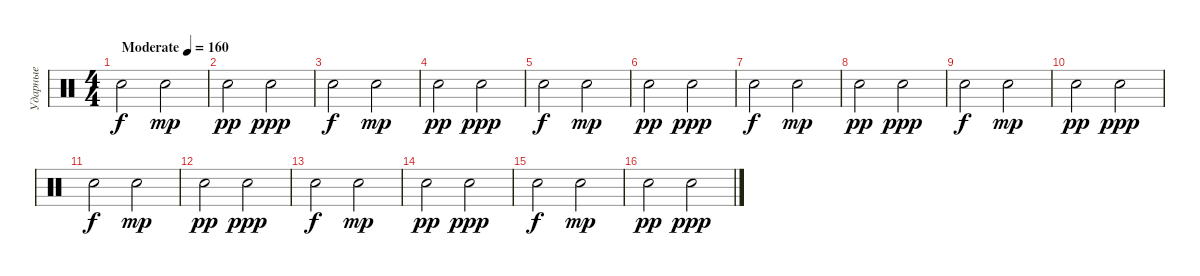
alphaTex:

\track ("Ударные" "Ударные") {instrument percussion}
\staff {score}
\articulation defaults
\ts (4 4)
\tempo (160 "Moderate")
\clef neutral
\ks c "Snare (hit) 2".2{dy f} "Snare (hit) 2".2{dy mp}
|
"Snare (hit) 2".2{dy pp} "Snare (hit) 2".2{dy ppp} |
"Snare (hit) 2".2{dy f} "Snare (hit) 2".2{dy mp} |
"Snare (hit) 2".2{dy pp} "Snare (hit) 2".2{dy ppp} |
"Snare (hit) 2".2{dy f} "Snare (hit) 2".2{dy mp} |
"Snare (hit) 2".2{dy pp} "Snare (hit) 2".2{dy ppp} |
"Snare (hit) 2".2{dy f} "Snare (hit) 2".2{dy mp} |
"Snare (hit) 2".2{dy pp} "Snare (hit) 2".2{dy ppp} |
"Snare (hit) 2".2{dy f} "Snare (hit) 2".2{dy mp} |
"Snare (hit) 2".2{dy pp} "Snare (hit) 2".2{dy ppp} |
"Snare (hit) 2".2{dy f} "Snare (hit) 2".2{dy mp} |
"Snare (hit) 2".2{dy pp} "Snare (hit) 2".2{dy ppp} |
"Snare (hit) 2".2{dy f} "Snare (hit) 2".2{dy mp} |
"Snare (hit) 2".2{dy pp} "Snare (hit) 2".2{dy ppp} |
"Snare (hit) 2".2{dy f} "Snare (hit) 2".2{dy mp} |
"Snare (hit) 2".2{dy pp} "Snare (hit) 2".2{dy ppp}
